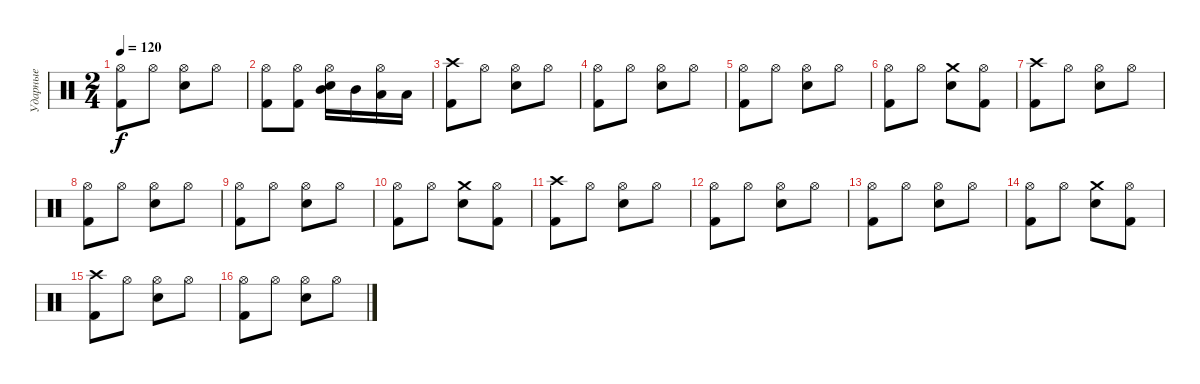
\track ("Ударные" "Ударные") {instrument percussion}
\staff {score}
\articulation defaults
\ts (2 4)
\tempo 120
\clef neutral
\ks c
("Hi-Hat (open)" "Kick (hit) 2").8{dy f} "Hi-Hat (open)".8 ("Hi-Hat (open)" "Electric Snare (hit)").8 "Hi-Hat (open)".8 |
("Hi-Hat (open)" "Kick (hit) 2").8 ("Hi-Hat (open)" "Kick (hit) 2").8 ("Hi-Hat (open)" "Mid Tom (hit)" "Electric Snare (hit)").16 "Mid Tom (hit)".16 ("Hi-Hat (open)" "Low Tom (hit)").16 "Low Tom (hit)".16 |
("Crash high (hit)" "Kick (hit) 2").8 "Hi-Hat (open)".8 ("Hi-Hat (open)" "Electric Snare (hit)").8 "Hi-Hat (open)".8 |
("Hi-Hat (open)" "Kick (hit) 2").8 "Hi-Hat (open)".8 ("Hi-Hat (open)" "Electric Snare (hit)").8 "Hi-Hat (open)".8 |
("Hi-Hat (open)" "Kick (hit) 2").8 "Hi-Hat (open)".8 ("Hi-Hat (open)" "Electric Snare (hit)").8 "Hi-Hat (open)".8 |
("Hi-Hat (open)" "Kick (hit) 2").8 "Hi-Hat (open)".8 ("Crash medium (hit)" "Electric Snare (hit)").8 ("Hi-Hat (open)" "Kick (hit) 2").8 |
("Crash high (hit)" "Kick (hit) 2").8 "Hi-Hat (open)".8 ("Hi-Hat (open)" "Electric Snare (hit)").8 "Hi-Hat (open)".8 |
("Hi-Hat (open)" "Kick (hit) 2").8 "Hi-Hat (open)".8 ("Hi-Hat (open)" "Electric Snare (hit)").8 "Hi-Hat (open)".8 |
("Hi-Hat (open)" "Kick (hit) 2").8 "Hi-Hat (open)".8 ("Hi-Hat (open)" "Electric Snare (hit)").8 "Hi-Hat (open)".8 |
("Hi-Hat (open)" "Kick (hit) 2").8 "Hi-Hat (open)".8 ("Crash medium (hit)" "Electric Snare (hit)").8 ("Hi-Hat (open)" "Kick (hit) 2").8 |
("Crash high (hit)" "Kick (hit) 2").8 "Hi-Hat (open)".8 ("Hi-Hat (open)" "Electric Snare (hit)").8 "Hi-Hat (open)".8 |
("Hi-Hat (open)" "Kick (hit) 2").8 "Hi-Hat (open)".8 ("Hi-Hat (open)" "Electric Snare (hit)").8 "Hi-Hat (open)".8 |
("Hi-Hat (open)" "Kick (hit) 2").8 "Hi-Hat (open)".8 ("Hi-Hat (open)" "Electric Snare (hit)").8 "Hi-Hat (open)".8 |
("Hi-Hat (open)" "Kick (hit) 2").8 "Hi-Hat (open)".8 ("Crash medium (hit)" "Electric Snare (hit)").8 ("Hi-Hat (open)" "Kick (hit) 2").8 |
("Crash high (hit)" "Kick (hit) 2").8 "Hi-Hat (open)".8 ("Hi-Hat (open)" "Electric Snare (hit)").8 "Hi-Hat (open)".8 |
("Hi-Hat (open)" "Kick (hit) 2").8 "Hi-Hat (open)".8 ("Hi-Hat (open)" "Electric Snare (hit)").8 "Hi-Hat (open)".8
